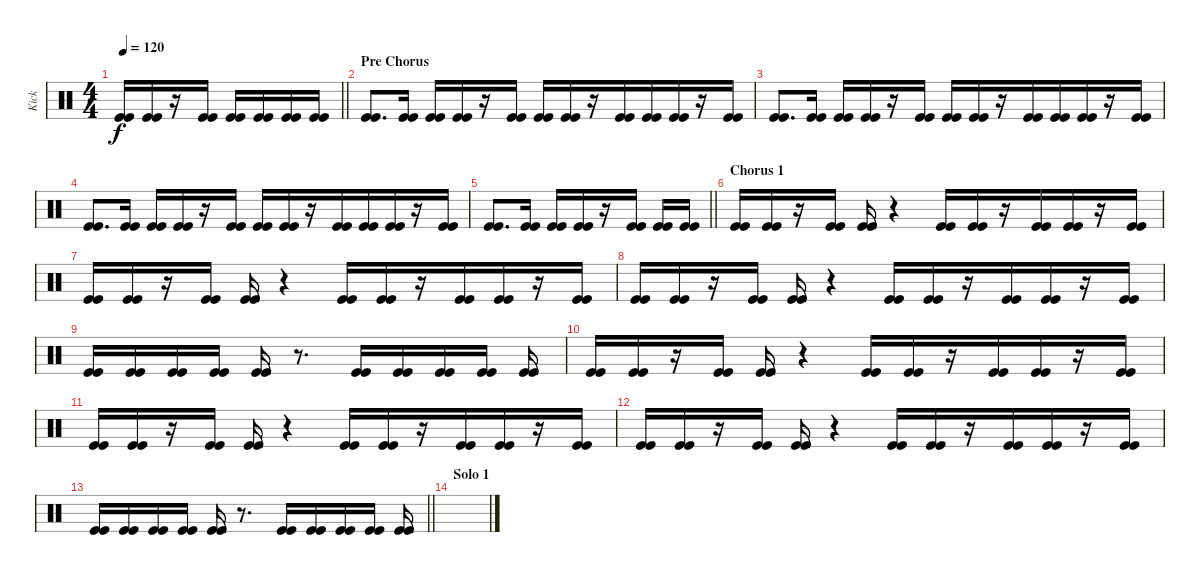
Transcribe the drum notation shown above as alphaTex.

\track ("Kick" "Kick") {instrument percussion}
\staff {score}
\articulation defaults
\ts (4 4)
\tempo 120
\clef neutral
\barLineRight lightlight
\ks c
("Kick (hit)" "Kick (hit)").16{dy f} ("Kick (hit)" "Kick (hit)").16{beam merge} r.16{beam merge} ("Kick (hit)" "Kick (hit)").16 ("Kick (hit)" "Kick (hit)").16 ("Kick (hit)" "Kick (hit)").16 ("Kick (hit)" "Kick (hit)").16 ("Kick (hit)" "Kick (hit)").16 |
\section ("" "Pre Chorus")
("Kick (hit)" "Kick (hit)").8{d beam merge} ("Kick (hit)" "Kick (hit)").16 ("Kick (hit)" "Kick (hit)").16 ("Kick (hit)" "Kick (hit)").16 r.16{beam merge} ("Kick (hit)" "Kick (hit)").16 ("Kick (hit)" "Kick (hit)").16 ("Kick (hit)" "Kick (hit)").16{beam merge} r.16 ("Kick (hit)" "Kick (hit)").16{beam merge} ("Kick (hit)" "Kick (hit)").16 ("Kick (hit)" "Kick (hit)").16{beam merge} r.16 ("Kick (hit)" "Kick (hit)").16 |
("Kick (hit)" "Kick (hit)").8{d beam merge} ("Kick (hit)" "Kick (hit)").16 ("Kick (hit)" "Kick (hit)").16 ("Kick (hit)" "Kick (hit)").16 r.16{beam merge} ("Kick (hit)" "Kick (hit)").16 ("Kick (hit)" "Kick (hit)").16 ("Kick (hit)" "Kick (hit)").16{beam merge} r.16 ("Kick (hit)" "Kick (hit)").16{beam merge} ("Kick (hit)" "Kick (hit)").16 ("Kick (hit)" "Kick (hit)").16{beam merge} r.16 ("Kick (hit)" "Kick (hit)").16 |
("Kick (hit)" "Kick (hit)").8{d beam merge} ("Kick (hit)" "Kick (hit)").16 ("Kick (hit)" "Kick (hit)").16 ("Kick (hit)" "Kick (hit)").16 r.16{beam merge} ("Kick (hit)" "Kick (hit)").16 ("Kick (hit)" "Kick (hit)").16 ("Kick (hit)" "Kick (hit)").16{beam merge} r.16 ("Kick (hit)" "Kick (hit)").16{beam merge} ("Kick (hit)" "Kick (hit)").16 ("Kick (hit)" "Kick (hit)").16{beam merge} r.16 ("Kick (hit)" "Kick (hit)").16 |
\barLineRight lightlight
("Kick (hit)" "Kick (hit)").8{d beam merge} ("Kick (hit)" "Kick (hit)").16 ("Kick (hit)" "Kick (hit)").16 ("Kick (hit)" "Kick (hit)").16 r.16{beam merge} ("Kick (hit)" "Kick (hit)").16 ("Kick (hit)" "Kick (hit)").16 ("Kick (hit)" "Kick (hit)").16 |
\section ("" "Chorus 1")
("Kick (hit)" "Kick (hit)").16 ("Kick (hit)" "Kick (hit)").16 r.16 ("Kick (hit)" "Kick (hit)").16 ("Kick (hit)" "Kick (hit)").16 r.4{beam merge} ("Kick (hit)" "Kick (hit)").16 ("Kick (hit)" "Kick (hit)").16{beam merge} r.16{beam merge} ("Kick (hit)" "Kick (hit)").16 ("Kick (hit)" "Kick (hit)").16{beam merge} r.16 ("Kick (hit)" "Kick (hit)").16 |
("Kick (hit)" "Kick (hit)").16 ("Kick (hit)" "Kick (hit)").16 r.16 ("Kick (hit)" "Kick (hit)").16 ("Kick (hit)" "Kick (hit)").16 r.4{beam merge} ("Kick (hit)" "Kick (hit)").16 ("Kick (hit)" "Kick (hit)").16{beam merge} r.16{beam merge} ("Kick (hit)" "Kick (hit)").16 ("Kick (hit)" "Kick (hit)").16{beam merge} r.16 ("Kick (hit)" "Kick (hit)").16 |
("Kick (hit)" "Kick (hit)").16 ("Kick (hit)" "Kick (hit)").16 r.16 ("Kick (hit)" "Kick (hit)").16 ("Kick (hit)" "Kick (hit)").16 r.4{beam merge} ("Kick (hit)" "Kick (hit)").16 ("Kick (hit)" "Kick (hit)").16{beam merge} r.16{beam merge} ("Kick (hit)" "Kick (hit)").16 ("Kick (hit)" "Kick (hit)").16{beam merge} r.16 ("Kick (hit)" "Kick (hit)").16 |
("Kick (hit)" "Kick (hit)").16 ("Kick (hit)" "Kick (hit)").16 ("Kick (hit)" "Kick (hit)").16 ("Kick (hit)" "Kick (hit)").16 ("Kick (hit)" "Kick (hit)").16 r.8{d beam merge} ("Kick (hit)" "Kick (hit)").16 ("Kick (hit)" "Kick (hit)").16{beam merge} ("Kick (hit)" "Kick (hit)").16{beam merge} ("Kick (hit)" "Kick (hit)").16 ("Kick (hit)" "Kick (hit)").16 |
("Kick (hit)" "Kick (hit)").16 ("Kick (hit)" "Kick (hit)").16 r.16 ("Kick (hit)" "Kick (hit)").16 ("Kick (hit)" "Kick (hit)").16 r.4{beam merge} ("Kick (hit)" "Kick (hit)").16 ("Kick (hit)" "Kick (hit)").16{beam merge} r.16{beam merge} ("Kick (hit)" "Kick (hit)").16 ("Kick (hit)" "Kick (hit)").16{beam merge} r.16 ("Kick (hit)" "Kick (hit)").16 |
("Kick (hit)" "Kick (hit)").16 ("Kick (hit)" "Kick (hit)").16 r.16 ("Kick (hit)" "Kick (hit)").16 ("Kick (hit)" "Kick (hit)").16 r.4{beam merge} ("Kick (hit)" "Kick (hit)").16 ("Kick (hit)" "Kick (hit)").16{beam merge} r.16{beam merge} ("Kick (hit)" "Kick (hit)").16 ("Kick (hit)" "Kick (hit)").16{beam merge} r.16 ("Kick (hit)" "Kick (hit)").16 |
("Kick (hit)" "Kick (hit)").16 ("Kick (hit)" "Kick (hit)").16 r.16 ("Kick (hit)" "Kick (hit)").16 ("Kick (hit)" "Kick (hit)").16 r.4{beam merge} ("Kick (hit)" "Kick (hit)").16 ("Kick (hit)" "Kick (hit)").16{beam merge} r.16{beam merge} ("Kick (hit)" "Kick (hit)").16 ("Kick (hit)" "Kick (hit)").16{beam merge} r.16 ("Kick (hit)" "Kick (hit)").16 |
\barLineRight lightlight
("Kick (hit)" "Kick (hit)").16 ("Kick (hit)" "Kick (hit)").16 ("Kick (hit)" "Kick (hit)").16 ("Kick (hit)" "Kick (hit)").16 ("Kick (hit)" "Kick (hit)").16 r.8{d beam merge} ("Kick (hit)" "Kick (hit)").16 ("Kick (hit)" "Kick (hit)").16{beam merge} ("Kick (hit)" "Kick (hit)").16{beam merge} ("Kick (hit)" "Kick (hit)").16 ("Kick (hit)" "Kick (hit)").16 |
\section ("" "Solo 1")
